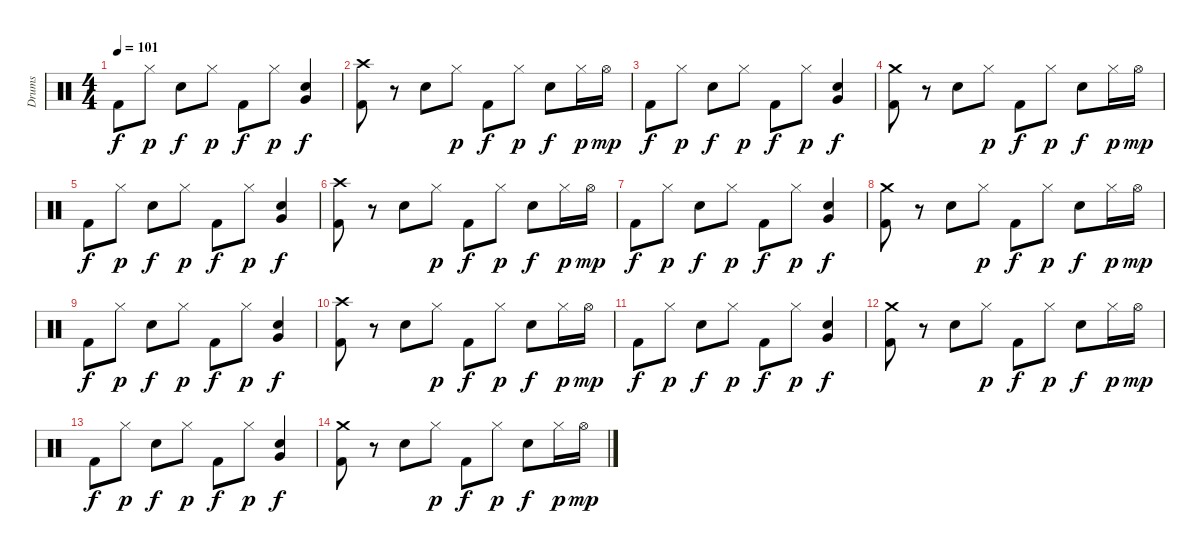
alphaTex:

\track ("Drums" "Drums") {instrument percussion}
\staff {score}
\articulation defaults
\ts (4 4)
\tempo 101
\clef neutral
\ks c "Kick (hit) 2".8{dy f} "Hi-Hat (closed)".8{dy p} "Electric Snare (hit)".8{dy f} "Hi-Hat (closed)".8{dy p} "Kick (hit) 2".8{dy f} "Hi-Hat (closed)".8{dy p}
("Electric Snare (hit)" "Very Low Tom (hit)").4{dy f} |
("Crash high (hit)" "Kick (hit) 2").8 r.8 "Electric Snare (hit)".8 "Hi-Hat (closed)".8{dy p} "Kick (hit) 2".8{dy f} "Hi-Hat (closed)".8{dy p} "Electric Snare (hit)".8{dy f} "Hi-Hat (closed)".16{dy p} "Hi-Hat (open)".16{dy mp} |
"Kick (hit) 2".8{dy f} "Hi-Hat (closed)".8{dy p} "Electric Snare (hit)".8{dy f} "Hi-Hat (closed)".8{dy p} "Kick (hit) 2".8{dy f} "Hi-Hat (closed)".8{dy p} ("Electric Snare (hit)" "Very Low Tom (hit)").4{dy f} |
("Crash medium (hit)" "Kick (hit) 2").8 r.8 "Electric Snare (hit)".8 "Hi-Hat (closed)".8{dy p} "Kick (hit) 2".8{dy f} "Hi-Hat (closed)".8{dy p} "Electric Snare (hit)".8{dy f} "Hi-Hat (closed)".16{dy p} "Hi-Hat (open)".16{dy mp} |
"Kick (hit) 2".8{dy f} "Hi-Hat (closed)".8{dy p} "Electric Snare (hit)".8{dy f} "Hi-Hat (closed)".8{dy p} "Kick (hit) 2".8{dy f} "Hi-Hat (closed)".8{dy p} ("Electric Snare (hit)" "Very Low Tom (hit)").4{dy f} |
("Crash high (hit)" "Kick (hit) 2").8 r.8 "Electric Snare (hit)".8 "Hi-Hat (closed)".8{dy p} "Kick (hit) 2".8{dy f} "Hi-Hat (closed)".8{dy p} "Electric Snare (hit)".8{dy f} "Hi-Hat (closed)".16{dy p} "Hi-Hat (open)".16{dy mp} |
"Kick (hit) 2".8{dy f} "Hi-Hat (closed)".8{dy p} "Electric Snare (hit)".8{dy f} "Hi-Hat (closed)".8{dy p} "Kick (hit) 2".8{dy f} "Hi-Hat (closed)".8{dy p} ("Electric Snare (hit)" "Very Low Tom (hit)").4{dy f} |
("Crash medium (hit)" "Kick (hit) 2").8 r.8 "Electric Snare (hit)".8 "Hi-Hat (closed)".8{dy p} "Kick (hit) 2".8{dy f} "Hi-Hat (closed)".8{dy p} "Electric Snare (hit)".8{dy f} "Hi-Hat (closed)".16{dy p} "Hi-Hat (open)".16{dy mp} |
"Kick (hit) 2".8{dy f} "Hi-Hat (closed)".8{dy p} "Electric Snare (hit)".8{dy f} "Hi-Hat (closed)".8{dy p} "Kick (hit) 2".8{dy f} "Hi-Hat (closed)".8{dy p} ("Electric Snare (hit)" "Very Low Tom (hit)").4{dy f} |
("Crash high (hit)" "Kick (hit) 2").8 r.8 "Electric Snare (hit)".8 "Hi-Hat (closed)".8{dy p} "Kick (hit) 2".8{dy f} "Hi-Hat (closed)".8{dy p} "Electric Snare (hit)".8{dy f} "Hi-Hat (closed)".16{dy p} "Hi-Hat (open)".16{dy mp} |
"Kick (hit) 2".8{dy f} "Hi-Hat (closed)".8{dy p} "Electric Snare (hit)".8{dy f} "Hi-Hat (closed)".8{dy p} "Kick (hit) 2".8{dy f} "Hi-Hat (closed)".8{dy p} ("Electric Snare (hit)" "Very Low Tom (hit)").4{dy f} |
("Crash medium (hit)" "Kick (hit) 2").8 r.8 "Electric Snare (hit)".8 "Hi-Hat (closed)".8{dy p} "Kick (hit) 2".8{dy f} "Hi-Hat (closed)".8{dy p} "Electric Snare (hit)".8{dy f} "Hi-Hat (closed)".16{dy p} "Hi-Hat (open)".16{dy mp} |
"Kick (hit) 2".8{dy f} "Hi-Hat (closed)".8{dy p} "Electric Snare (hit)".8{dy f} "Hi-Hat (closed)".8{dy p} "Kick (hit) 2".8{dy f} "Hi-Hat (closed)".8{dy p} ("Electric Snare (hit)" "Very Low Tom (hit)").4{dy f} |
("Crash medium (hit)" "Kick (hit) 2").8 r.8 "Electric Snare (hit)".8 "Hi-Hat (closed)".8{dy p} "Kick (hit) 2".8{dy f} "Hi-Hat (closed)".8{dy p} "Electric Snare (hit)".8{dy f} "Hi-Hat (closed)".16{dy p} "Hi-Hat (open)".16{dy mp}
